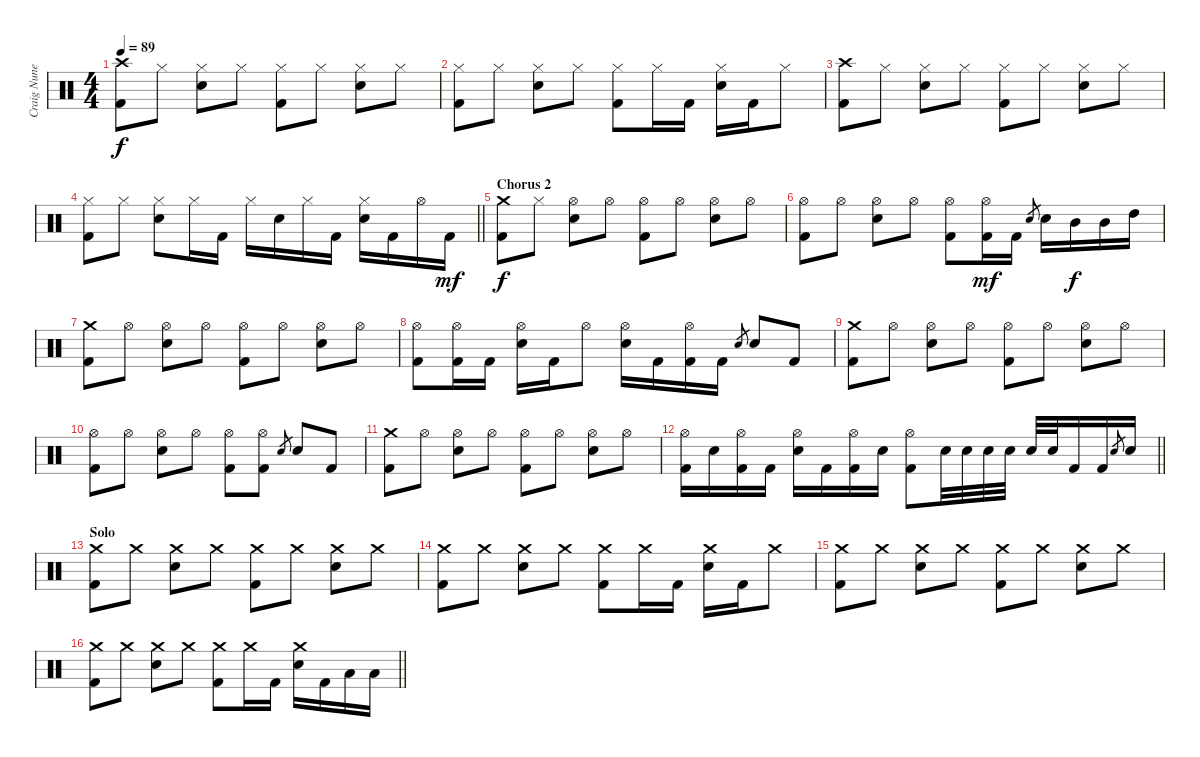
\track ("Craig Nunenmacher" "Craig Nune") {instrument percussion}
\staff {score}
\articulation defaults
\ts (4 4)
\tempo 89
\clef neutral
\ks c
("Crash high (hit)" "Kick (hit) 2").8{dy f} "Hi-Hat (closed)".8 ("Hi-Hat (closed)" "Snare (hit) 2").8 "Hi-Hat (closed)".8 ("Hi-Hat (closed)" "Kick (hit) 2").8 "Hi-Hat (closed)".8 ("Hi-Hat (closed)" "Snare (hit) 2").8 "Hi-Hat (closed)".8 |
("Hi-Hat (closed)" "Kick (hit) 2").8 "Hi-Hat (closed)".8 ("Hi-Hat (closed)" "Snare (hit) 2").8 "Hi-Hat (closed)".8 ("Hi-Hat (closed)" "Kick (hit) 2").8 "Hi-Hat (closed)".16 "Kick (hit) 2".16 ("Hi-Hat (closed)" "Snare (hit) 2").16 "Kick (hit) 2".16 "Hi-Hat (closed)".8 |
("Crash high (hit)" "Kick (hit) 2").8 "Hi-Hat (closed)".8 ("Hi-Hat (closed)" "Snare (hit) 2").8 "Hi-Hat (closed)".8 ("Hi-Hat (closed)" "Kick (hit) 2").8 "Hi-Hat (closed)".8 ("Hi-Hat (closed)" "Snare (hit) 2").8 "Hi-Hat (closed)".8 |
\barLineRight lightlight
("Hi-Hat (closed)" "Kick (hit) 2").8 "Hi-Hat (closed)".8 ("Hi-Hat (closed)" "Snare (hit) 2").8 "Hi-Hat (closed)".16 "Kick (hit) 2".16 "Hi-Hat (closed)".16 "Snare (hit) 2".16 "Hi-Hat (closed)".16 "Kick (hit) 2".16 ("Hi-Hat (closed)" "Snare (hit) 2").16 "Kick (hit) 2".16 "Hi-Hat (open)".16 "Kick (hit) 2".16{dy mf} |
\section ("" "Chorus 2")
("Crash medium (hit)" "Kick (hit) 2").8{dy f} "Hi-Hat (closed)".8 ("Hi-Hat (open)" "Snare (hit) 2").8 "Hi-Hat (open)".8 ("Hi-Hat (open)" "Kick (hit) 2").8 "Hi-Hat (open)".8 ("Hi-Hat (open)" "Snare (hit) 2").8 "Hi-Hat (open)".8 |
("Hi-Hat (open)" "Kick (hit) 2").8 "Hi-Hat (open)".8 ("Hi-Hat (open)" "Snare (hit) 2").8 "Hi-Hat (open)".8 ("Hi-Hat (open)" "Kick (hit) 2").8 ("Hi-Hat (open)" "Kick (hit) 2").16{dy mf} "Kick (hit) 2".16 "Snare (hit) 2".8{gr} "Snare (hit) 2".16 "Mid Tom (hit)".16{dy f} "Mid Tom (hit)".16 "High Tom (hit)".16 |
("Crash medium (hit)" "Kick (hit) 2").8 "Hi-Hat (open)".8 ("Hi-Hat (open)" "Snare (hit) 2").8 "Hi-Hat (open)".8 ("Hi-Hat (open)" "Kick (hit) 2").8 "Hi-Hat (open)".8 ("Hi-Hat (open)" "Snare (hit) 2").8 "Hi-Hat (open)".8 |
("Hi-Hat (open)" "Kick (hit) 2").8 ("Hi-Hat (open)" "Kick (hit) 2").16 "Kick (hit) 2".16 ("Hi-Hat (open)" "Snare (hit) 2").16 "Kick (hit) 2".16 "Hi-Hat (open)".8 ("Hi-Hat (open)" "Snare (hit) 2").16 "Kick (hit) 2".16 ("Hi-Hat (open)" "Kick (hit) 2").16 "Kick (hit) 2".16 "Snare (hit) 2".8{gr} "Snare (hit) 2".8 "Kick (hit) 2".8 |
("Crash medium (hit)" "Kick (hit) 2").8 "Hi-Hat (open)".8 ("Hi-Hat (open)" "Snare (hit) 2").8 "Hi-Hat (open)".8 ("Hi-Hat (open)" "Kick (hit) 2").8 "Hi-Hat (open)".8 ("Hi-Hat (open)" "Snare (hit) 2").8 "Hi-Hat (open)".8 |
("Hi-Hat (open)" "Kick (hit) 2").8 "Hi-Hat (open)".8 ("Hi-Hat (open)" "Snare (hit) 2").8 "Hi-Hat (open)".8 ("Hi-Hat (open)" "Kick (hit) 2").8 ("Hi-Hat (open)" "Kick (hit) 2").8 "Snare (hit) 2".8{gr} "Snare (hit) 2".8 "Kick (hit) 2".8 |
("Crash medium (hit)" "Kick (hit) 2").8 "Hi-Hat (open)".8 ("Hi-Hat (open)" "Snare (hit) 2").8 "Hi-Hat (open)".8 ("Hi-Hat (open)" "Kick (hit) 2").8 "Hi-Hat (open)".8 ("Hi-Hat (open)" "Snare (hit) 2").8 "Hi-Hat (open)".8 |
\barLineRight lightlight
("Hi-Hat (open)" "Kick (hit) 2").16 "Snare (hit) 2".16 ("Hi-Hat (open)" "Kick (hit) 2").16 "Kick (hit) 2".16 ("Hi-Hat (open)" "Snare (hit) 2").16 "Kick (hit) 2".16 ("Hi-Hat (open)" "Kick (hit) 2").16 "Snare (hit) 2".16 ("Hi-Hat (open)" "Kick (hit) 2").8 "Snare (hit) 2".32 "Snare (hit) 2".32 "Snare (hit) 2".32 "Snare (hit) 2".32 "Snare (hit) 2".32 "Snare (hit) 2".32 "Kick (hit) 2".16 "Kick (hit) 2".16 "Snare (hit) 2".8{gr} "Snare (hit) 2".16 |
\section ("" "Solo")
("Crash medium (hit)" "Kick (hit) 2").8 "Crash medium (hit)".8 ("Crash medium (hit)" "Snare (hit) 2").8 "Crash medium (hit)".8 ("Crash medium (hit)" "Kick (hit) 2").8 "Crash medium (hit)".8 ("Crash medium (hit)" "Snare (hit) 2").8 "Crash medium (hit)".8 |
("Crash medium (hit)" "Kick (hit) 2").8 "Crash medium (hit)".8 ("Crash medium (hit)" "Snare (hit) 2").8 "Crash medium (hit)".8 ("Crash medium (hit)" "Kick (hit) 2").8 "Crash medium (hit)".16 "Kick (hit) 2".16 ("Crash medium (hit)" "Snare (hit) 2").16 "Kick (hit) 2".16 "Crash medium (hit)".8 |
("Crash medium (hit)" "Kick (hit) 2").8 "Crash medium (hit)".8 ("Crash medium (hit)" "Snare (hit) 2").8 "Crash medium (hit)".8 ("Crash medium (hit)" "Kick (hit) 2").8 "Crash medium (hit)".8 ("Crash medium (hit)" "Snare (hit) 2").8 "Crash medium (hit)".8 |
\barLineRight lightlight
("Crash medium (hit)" "Kick (hit) 2").8 "Crash medium (hit)".8 ("Crash medium (hit)" "Snare (hit) 2").8 "Crash medium (hit)".8 ("Crash medium (hit)" "Kick (hit) 2").8 "Crash medium (hit)".16 "Kick (hit) 2".16 ("Crash medium (hit)" "Snare (hit) 2").16 "Kick (hit) 2".16 "Low Tom (hit)".16 "Low Tom (hit)".16
